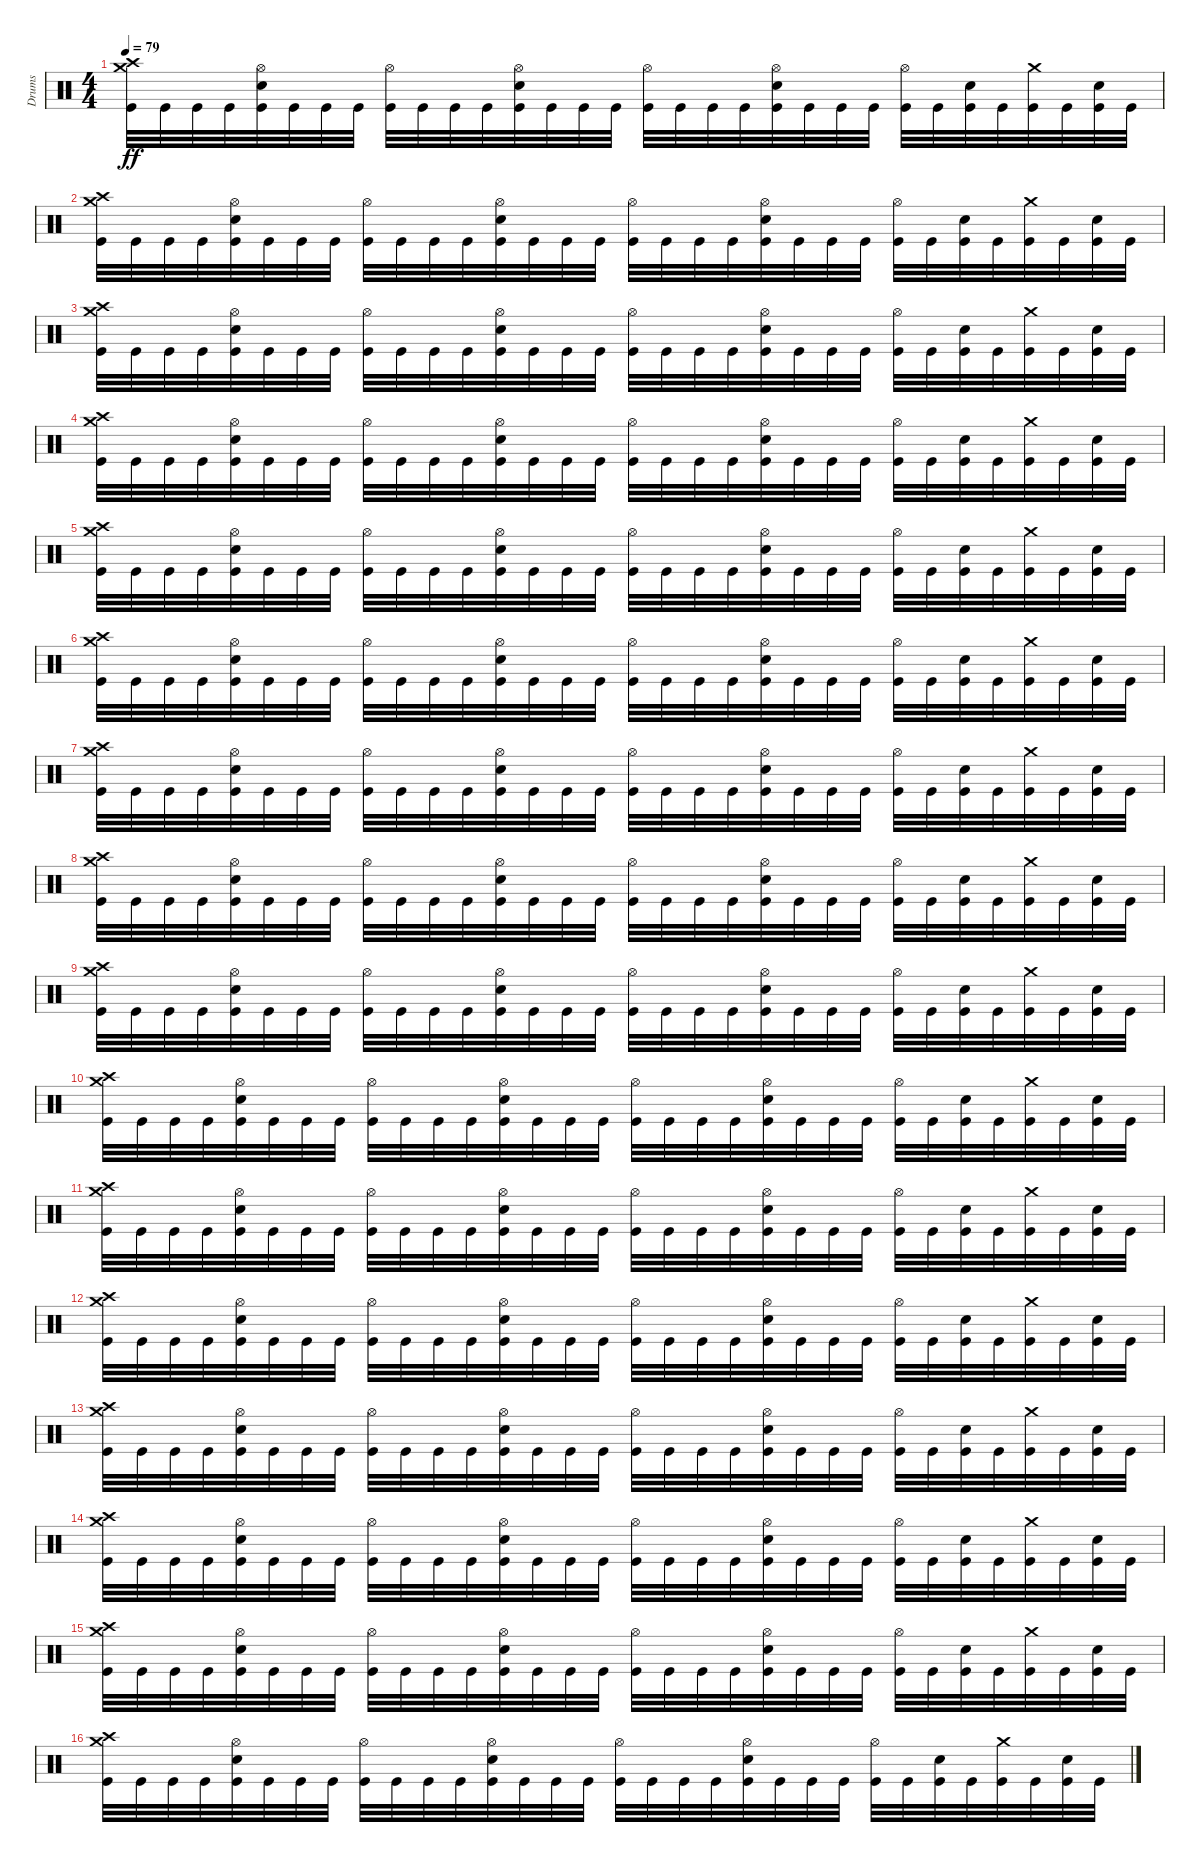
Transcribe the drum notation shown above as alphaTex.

\track ("Drums" "Drums") {instrument percussion}
\staff {score}
\articulation defaults
\ts (4 4)
\tempo 79
\clef neutral
\ks c
("Crash high (hit)" "Crash medium (hit)" "Kick (hit)").32{dy ff} "Kick (hit)".32 "Kick (hit)".32 "Kick (hit)".32 ("Hi-Hat (open)" "Electric Snare (hit)" "Kick (hit)").32 "Kick (hit)".32 "Kick (hit)".32 "Kick (hit)".32 ("Hi-Hat (open)" "Kick (hit)").32 "Kick (hit)".32 "Kick (hit)".32 "Kick (hit)".32 ("Hi-Hat (open)" "Electric Snare (hit)" "Kick (hit)").32 "Kick (hit)".32 "Kick (hit)".32 "Kick (hit)".32 ("Hi-Hat (open)" "Kick (hit)").32 "Kick (hit)".32 "Kick (hit)".32 "Kick (hit)".32 ("Hi-Hat (open)" "Electric Snare (hit)" "Kick (hit)").32 "Kick (hit)".32 "Kick (hit)".32 "Kick (hit)".32 ("Hi-Hat (open)" "Kick (hit)").32 "Kick (hit)".32 ("Electric Snare (hit)" "Kick (hit)").32 "Kick (hit)".32 ("Crash medium (hit)" "Kick (hit)").32 "Kick (hit)".32 ("Electric Snare (hit)" "Kick (hit)").32 "Kick (hit)".32 |
("Crash high (hit)" "Crash medium (hit)" "Kick (hit)").32 "Kick (hit)".32 "Kick (hit)".32 "Kick (hit)".32 ("Hi-Hat (open)" "Electric Snare (hit)" "Kick (hit)").32 "Kick (hit)".32 "Kick (hit)".32 "Kick (hit)".32 ("Hi-Hat (open)" "Kick (hit)").32 "Kick (hit)".32 "Kick (hit)".32 "Kick (hit)".32 ("Hi-Hat (open)" "Electric Snare (hit)" "Kick (hit)").32 "Kick (hit)".32 "Kick (hit)".32 "Kick (hit)".32 ("Hi-Hat (open)" "Kick (hit)").32 "Kick (hit)".32 "Kick (hit)".32 "Kick (hit)".32 ("Hi-Hat (open)" "Electric Snare (hit)" "Kick (hit)").32 "Kick (hit)".32 "Kick (hit)".32 "Kick (hit)".32 ("Hi-Hat (open)" "Kick (hit)").32 "Kick (hit)".32 ("Electric Snare (hit)" "Kick (hit)").32 "Kick (hit)".32 ("Crash medium (hit)" "Kick (hit)").32 "Kick (hit)".32 ("Electric Snare (hit)" "Kick (hit)").32 "Kick (hit)".32 |
("Crash high (hit)" "Crash medium (hit)" "Kick (hit)").32 "Kick (hit)".32 "Kick (hit)".32 "Kick (hit)".32 ("Hi-Hat (open)" "Electric Snare (hit)" "Kick (hit)").32 "Kick (hit)".32 "Kick (hit)".32 "Kick (hit)".32 ("Hi-Hat (open)" "Kick (hit)").32 "Kick (hit)".32 "Kick (hit)".32 "Kick (hit)".32 ("Hi-Hat (open)" "Electric Snare (hit)" "Kick (hit)").32 "Kick (hit)".32 "Kick (hit)".32 "Kick (hit)".32 ("Hi-Hat (open)" "Kick (hit)").32 "Kick (hit)".32 "Kick (hit)".32 "Kick (hit)".32 ("Hi-Hat (open)" "Electric Snare (hit)" "Kick (hit)").32 "Kick (hit)".32 "Kick (hit)".32 "Kick (hit)".32 ("Hi-Hat (open)" "Kick (hit)").32 "Kick (hit)".32 ("Electric Snare (hit)" "Kick (hit)").32 "Kick (hit)".32 ("Crash medium (hit)" "Kick (hit)").32 "Kick (hit)".32 ("Electric Snare (hit)" "Kick (hit)").32 "Kick (hit)".32 |
("Crash high (hit)" "Crash medium (hit)" "Kick (hit)").32 "Kick (hit)".32 "Kick (hit)".32 "Kick (hit)".32 ("Hi-Hat (open)" "Electric Snare (hit)" "Kick (hit)").32 "Kick (hit)".32 "Kick (hit)".32 "Kick (hit)".32 ("Hi-Hat (open)" "Kick (hit)").32 "Kick (hit)".32 "Kick (hit)".32 "Kick (hit)".32 ("Hi-Hat (open)" "Electric Snare (hit)" "Kick (hit)").32 "Kick (hit)".32 "Kick (hit)".32 "Kick (hit)".32 ("Hi-Hat (open)" "Kick (hit)").32 "Kick (hit)".32 "Kick (hit)".32 "Kick (hit)".32 ("Hi-Hat (open)" "Electric Snare (hit)" "Kick (hit)").32 "Kick (hit)".32 "Kick (hit)".32 "Kick (hit)".32 ("Hi-Hat (open)" "Kick (hit)").32 "Kick (hit)".32 ("Electric Snare (hit)" "Kick (hit)").32 "Kick (hit)".32 ("Crash medium (hit)" "Kick (hit)").32 "Kick (hit)".32 ("Electric Snare (hit)" "Kick (hit)").32 "Kick (hit)".32 |
("Crash high (hit)" "Crash medium (hit)" "Kick (hit)").32 "Kick (hit)".32 "Kick (hit)".32 "Kick (hit)".32 ("Hi-Hat (open)" "Electric Snare (hit)" "Kick (hit)").32 "Kick (hit)".32 "Kick (hit)".32 "Kick (hit)".32 ("Hi-Hat (open)" "Kick (hit)").32 "Kick (hit)".32 "Kick (hit)".32 "Kick (hit)".32 ("Hi-Hat (open)" "Electric Snare (hit)" "Kick (hit)").32 "Kick (hit)".32 "Kick (hit)".32 "Kick (hit)".32 ("Hi-Hat (open)" "Kick (hit)").32 "Kick (hit)".32 "Kick (hit)".32 "Kick (hit)".32 ("Hi-Hat (open)" "Electric Snare (hit)" "Kick (hit)").32 "Kick (hit)".32 "Kick (hit)".32 "Kick (hit)".32 ("Hi-Hat (open)" "Kick (hit)").32 "Kick (hit)".32 ("Electric Snare (hit)" "Kick (hit)").32 "Kick (hit)".32 ("Crash medium (hit)" "Kick (hit)").32 "Kick (hit)".32 ("Electric Snare (hit)" "Kick (hit)").32 "Kick (hit)".32 |
("Crash high (hit)" "Crash medium (hit)" "Kick (hit)").32 "Kick (hit)".32 "Kick (hit)".32 "Kick (hit)".32 ("Hi-Hat (open)" "Electric Snare (hit)" "Kick (hit)").32 "Kick (hit)".32 "Kick (hit)".32 "Kick (hit)".32 ("Hi-Hat (open)" "Kick (hit)").32 "Kick (hit)".32 "Kick (hit)".32 "Kick (hit)".32 ("Hi-Hat (open)" "Electric Snare (hit)" "Kick (hit)").32 "Kick (hit)".32 "Kick (hit)".32 "Kick (hit)".32 ("Hi-Hat (open)" "Kick (hit)").32 "Kick (hit)".32 "Kick (hit)".32 "Kick (hit)".32 ("Hi-Hat (open)" "Electric Snare (hit)" "Kick (hit)").32 "Kick (hit)".32 "Kick (hit)".32 "Kick (hit)".32 ("Hi-Hat (open)" "Kick (hit)").32 "Kick (hit)".32 ("Electric Snare (hit)" "Kick (hit)").32 "Kick (hit)".32 ("Crash medium (hit)" "Kick (hit)").32 "Kick (hit)".32 ("Electric Snare (hit)" "Kick (hit)").32 "Kick (hit)".32 |
("Crash high (hit)" "Crash medium (hit)" "Kick (hit)").32 "Kick (hit)".32 "Kick (hit)".32 "Kick (hit)".32 ("Hi-Hat (open)" "Electric Snare (hit)" "Kick (hit)").32 "Kick (hit)".32 "Kick (hit)".32 "Kick (hit)".32 ("Hi-Hat (open)" "Kick (hit)").32 "Kick (hit)".32 "Kick (hit)".32 "Kick (hit)".32 ("Hi-Hat (open)" "Electric Snare (hit)" "Kick (hit)").32 "Kick (hit)".32 "Kick (hit)".32 "Kick (hit)".32 ("Hi-Hat (open)" "Kick (hit)").32 "Kick (hit)".32 "Kick (hit)".32 "Kick (hit)".32 ("Hi-Hat (open)" "Electric Snare (hit)" "Kick (hit)").32 "Kick (hit)".32 "Kick (hit)".32 "Kick (hit)".32 ("Hi-Hat (open)" "Kick (hit)").32 "Kick (hit)".32 ("Electric Snare (hit)" "Kick (hit)").32 "Kick (hit)".32 ("Crash medium (hit)" "Kick (hit)").32 "Kick (hit)".32 ("Electric Snare (hit)" "Kick (hit)").32 "Kick (hit)".32 |
("Crash high (hit)" "Crash medium (hit)" "Kick (hit)").32 "Kick (hit)".32 "Kick (hit)".32 "Kick (hit)".32 ("Hi-Hat (open)" "Electric Snare (hit)" "Kick (hit)").32 "Kick (hit)".32 "Kick (hit)".32 "Kick (hit)".32 ("Hi-Hat (open)" "Kick (hit)").32 "Kick (hit)".32 "Kick (hit)".32 "Kick (hit)".32 ("Hi-Hat (open)" "Electric Snare (hit)" "Kick (hit)").32 "Kick (hit)".32 "Kick (hit)".32 "Kick (hit)".32 ("Hi-Hat (open)" "Kick (hit)").32 "Kick (hit)".32 "Kick (hit)".32 "Kick (hit)".32 ("Hi-Hat (open)" "Electric Snare (hit)" "Kick (hit)").32 "Kick (hit)".32 "Kick (hit)".32 "Kick (hit)".32 ("Hi-Hat (open)" "Kick (hit)").32 "Kick (hit)".32 ("Electric Snare (hit)" "Kick (hit)").32 "Kick (hit)".32 ("Crash medium (hit)" "Kick (hit)").32 "Kick (hit)".32 ("Electric Snare (hit)" "Kick (hit)").32 "Kick (hit)".32 |
("Crash high (hit)" "Crash medium (hit)" "Kick (hit)").32 "Kick (hit)".32 "Kick (hit)".32 "Kick (hit)".32 ("Hi-Hat (open)" "Electric Snare (hit)" "Kick (hit)").32 "Kick (hit)".32 "Kick (hit)".32 "Kick (hit)".32 ("Hi-Hat (open)" "Kick (hit)").32 "Kick (hit)".32 "Kick (hit)".32 "Kick (hit)".32 ("Hi-Hat (open)" "Electric Snare (hit)" "Kick (hit)").32 "Kick (hit)".32 "Kick (hit)".32 "Kick (hit)".32 ("Hi-Hat (open)" "Kick (hit)").32 "Kick (hit)".32 "Kick (hit)".32 "Kick (hit)".32 ("Hi-Hat (open)" "Electric Snare (hit)" "Kick (hit)").32 "Kick (hit)".32 "Kick (hit)".32 "Kick (hit)".32 ("Hi-Hat (open)" "Kick (hit)").32 "Kick (hit)".32 ("Electric Snare (hit)" "Kick (hit)").32 "Kick (hit)".32 ("Crash medium (hit)" "Kick (hit)").32 "Kick (hit)".32 ("Electric Snare (hit)" "Kick (hit)").32 "Kick (hit)".32 |
("Crash high (hit)" "Crash medium (hit)" "Kick (hit)").32 "Kick (hit)".32 "Kick (hit)".32 "Kick (hit)".32 ("Hi-Hat (open)" "Electric Snare (hit)" "Kick (hit)").32 "Kick (hit)".32 "Kick (hit)".32 "Kick (hit)".32 ("Hi-Hat (open)" "Kick (hit)").32 "Kick (hit)".32 "Kick (hit)".32 "Kick (hit)".32 ("Hi-Hat (open)" "Electric Snare (hit)" "Kick (hit)").32 "Kick (hit)".32 "Kick (hit)".32 "Kick (hit)".32 ("Hi-Hat (open)" "Kick (hit)").32 "Kick (hit)".32 "Kick (hit)".32 "Kick (hit)".32 ("Hi-Hat (open)" "Electric Snare (hit)" "Kick (hit)").32 "Kick (hit)".32 "Kick (hit)".32 "Kick (hit)".32 ("Hi-Hat (open)" "Kick (hit)").32 "Kick (hit)".32 ("Electric Snare (hit)" "Kick (hit)").32 "Kick (hit)".32 ("Crash medium (hit)" "Kick (hit)").32 "Kick (hit)".32 ("Electric Snare (hit)" "Kick (hit)").32 "Kick (hit)".32 |
("Crash high (hit)" "Crash medium (hit)" "Kick (hit)").32 "Kick (hit)".32 "Kick (hit)".32 "Kick (hit)".32 ("Hi-Hat (open)" "Electric Snare (hit)" "Kick (hit)").32 "Kick (hit)".32 "Kick (hit)".32 "Kick (hit)".32 ("Hi-Hat (open)" "Kick (hit)").32 "Kick (hit)".32 "Kick (hit)".32 "Kick (hit)".32 ("Hi-Hat (open)" "Electric Snare (hit)" "Kick (hit)").32 "Kick (hit)".32 "Kick (hit)".32 "Kick (hit)".32 ("Hi-Hat (open)" "Kick (hit)").32 "Kick (hit)".32 "Kick (hit)".32 "Kick (hit)".32 ("Hi-Hat (open)" "Electric Snare (hit)" "Kick (hit)").32 "Kick (hit)".32 "Kick (hit)".32 "Kick (hit)".32 ("Hi-Hat (open)" "Kick (hit)").32 "Kick (hit)".32 ("Electric Snare (hit)" "Kick (hit)").32 "Kick (hit)".32 ("Crash medium (hit)" "Kick (hit)").32 "Kick (hit)".32 ("Electric Snare (hit)" "Kick (hit)").32 "Kick (hit)".32 |
("Crash high (hit)" "Crash medium (hit)" "Kick (hit)").32 "Kick (hit)".32 "Kick (hit)".32 "Kick (hit)".32 ("Hi-Hat (open)" "Electric Snare (hit)" "Kick (hit)").32 "Kick (hit)".32 "Kick (hit)".32 "Kick (hit)".32 ("Hi-Hat (open)" "Kick (hit)").32 "Kick (hit)".32 "Kick (hit)".32 "Kick (hit)".32 ("Hi-Hat (open)" "Electric Snare (hit)" "Kick (hit)").32 "Kick (hit)".32 "Kick (hit)".32 "Kick (hit)".32 ("Hi-Hat (open)" "Kick (hit)").32 "Kick (hit)".32 "Kick (hit)".32 "Kick (hit)".32 ("Hi-Hat (open)" "Electric Snare (hit)" "Kick (hit)").32 "Kick (hit)".32 "Kick (hit)".32 "Kick (hit)".32 ("Hi-Hat (open)" "Kick (hit)").32 "Kick (hit)".32 ("Electric Snare (hit)" "Kick (hit)").32 "Kick (hit)".32 ("Crash medium (hit)" "Kick (hit)").32 "Kick (hit)".32 ("Electric Snare (hit)" "Kick (hit)").32 "Kick (hit)".32 |
("Crash high (hit)" "Crash medium (hit)" "Kick (hit)").32 "Kick (hit)".32 "Kick (hit)".32 "Kick (hit)".32 ("Hi-Hat (open)" "Electric Snare (hit)" "Kick (hit)").32 "Kick (hit)".32 "Kick (hit)".32 "Kick (hit)".32 ("Hi-Hat (open)" "Kick (hit)").32 "Kick (hit)".32 "Kick (hit)".32 "Kick (hit)".32 ("Hi-Hat (open)" "Electric Snare (hit)" "Kick (hit)").32 "Kick (hit)".32 "Kick (hit)".32 "Kick (hit)".32 ("Hi-Hat (open)" "Kick (hit)").32 "Kick (hit)".32 "Kick (hit)".32 "Kick (hit)".32 ("Hi-Hat (open)" "Electric Snare (hit)" "Kick (hit)").32 "Kick (hit)".32 "Kick (hit)".32 "Kick (hit)".32 ("Hi-Hat (open)" "Kick (hit)").32 "Kick (hit)".32 ("Electric Snare (hit)" "Kick (hit)").32 "Kick (hit)".32 ("Crash medium (hit)" "Kick (hit)").32 "Kick (hit)".32 ("Electric Snare (hit)" "Kick (hit)").32 "Kick (hit)".32 |
("Crash high (hit)" "Crash medium (hit)" "Kick (hit)").32 "Kick (hit)".32 "Kick (hit)".32 "Kick (hit)".32 ("Hi-Hat (open)" "Electric Snare (hit)" "Kick (hit)").32 "Kick (hit)".32 "Kick (hit)".32 "Kick (hit)".32 ("Hi-Hat (open)" "Kick (hit)").32 "Kick (hit)".32 "Kick (hit)".32 "Kick (hit)".32 ("Hi-Hat (open)" "Electric Snare (hit)" "Kick (hit)").32 "Kick (hit)".32 "Kick (hit)".32 "Kick (hit)".32 ("Hi-Hat (open)" "Kick (hit)").32 "Kick (hit)".32 "Kick (hit)".32 "Kick (hit)".32 ("Hi-Hat (open)" "Electric Snare (hit)" "Kick (hit)").32 "Kick (hit)".32 "Kick (hit)".32 "Kick (hit)".32 ("Hi-Hat (open)" "Kick (hit)").32 "Kick (hit)".32 ("Electric Snare (hit)" "Kick (hit)").32 "Kick (hit)".32 ("Crash medium (hit)" "Kick (hit)").32 "Kick (hit)".32 ("Electric Snare (hit)" "Kick (hit)").32 "Kick (hit)".32 |
("Crash high (hit)" "Crash medium (hit)" "Kick (hit)").32 "Kick (hit)".32 "Kick (hit)".32 "Kick (hit)".32 ("Hi-Hat (open)" "Electric Snare (hit)" "Kick (hit)").32 "Kick (hit)".32 "Kick (hit)".32 "Kick (hit)".32 ("Hi-Hat (open)" "Kick (hit)").32 "Kick (hit)".32 "Kick (hit)".32 "Kick (hit)".32 ("Hi-Hat (open)" "Electric Snare (hit)" "Kick (hit)").32 "Kick (hit)".32 "Kick (hit)".32 "Kick (hit)".32 ("Hi-Hat (open)" "Kick (hit)").32 "Kick (hit)".32 "Kick (hit)".32 "Kick (hit)".32 ("Hi-Hat (open)" "Electric Snare (hit)" "Kick (hit)").32 "Kick (hit)".32 "Kick (hit)".32 "Kick (hit)".32 ("Hi-Hat (open)" "Kick (hit)").32 "Kick (hit)".32 ("Electric Snare (hit)" "Kick (hit)").32 "Kick (hit)".32 ("Crash medium (hit)" "Kick (hit)").32 "Kick (hit)".32 ("Electric Snare (hit)" "Kick (hit)").32 "Kick (hit)".32 |
("Crash high (hit)" "Crash medium (hit)" "Kick (hit)").32 "Kick (hit)".32 "Kick (hit)".32 "Kick (hit)".32 ("Hi-Hat (open)" "Electric Snare (hit)" "Kick (hit)").32 "Kick (hit)".32 "Kick (hit)".32 "Kick (hit)".32 ("Hi-Hat (open)" "Kick (hit)").32 "Kick (hit)".32 "Kick (hit)".32 "Kick (hit)".32 ("Hi-Hat (open)" "Electric Snare (hit)" "Kick (hit)").32 "Kick (hit)".32 "Kick (hit)".32 "Kick (hit)".32 ("Hi-Hat (open)" "Kick (hit)").32 "Kick (hit)".32 "Kick (hit)".32 "Kick (hit)".32 ("Hi-Hat (open)" "Electric Snare (hit)" "Kick (hit)").32 "Kick (hit)".32 "Kick (hit)".32 "Kick (hit)".32 ("Hi-Hat (open)" "Kick (hit)").32 "Kick (hit)".32 ("Electric Snare (hit)" "Kick (hit)").32 "Kick (hit)".32 ("Crash medium (hit)" "Kick (hit)").32 "Kick (hit)".32 ("Electric Snare (hit)" "Kick (hit)").32 "Kick (hit)".32
